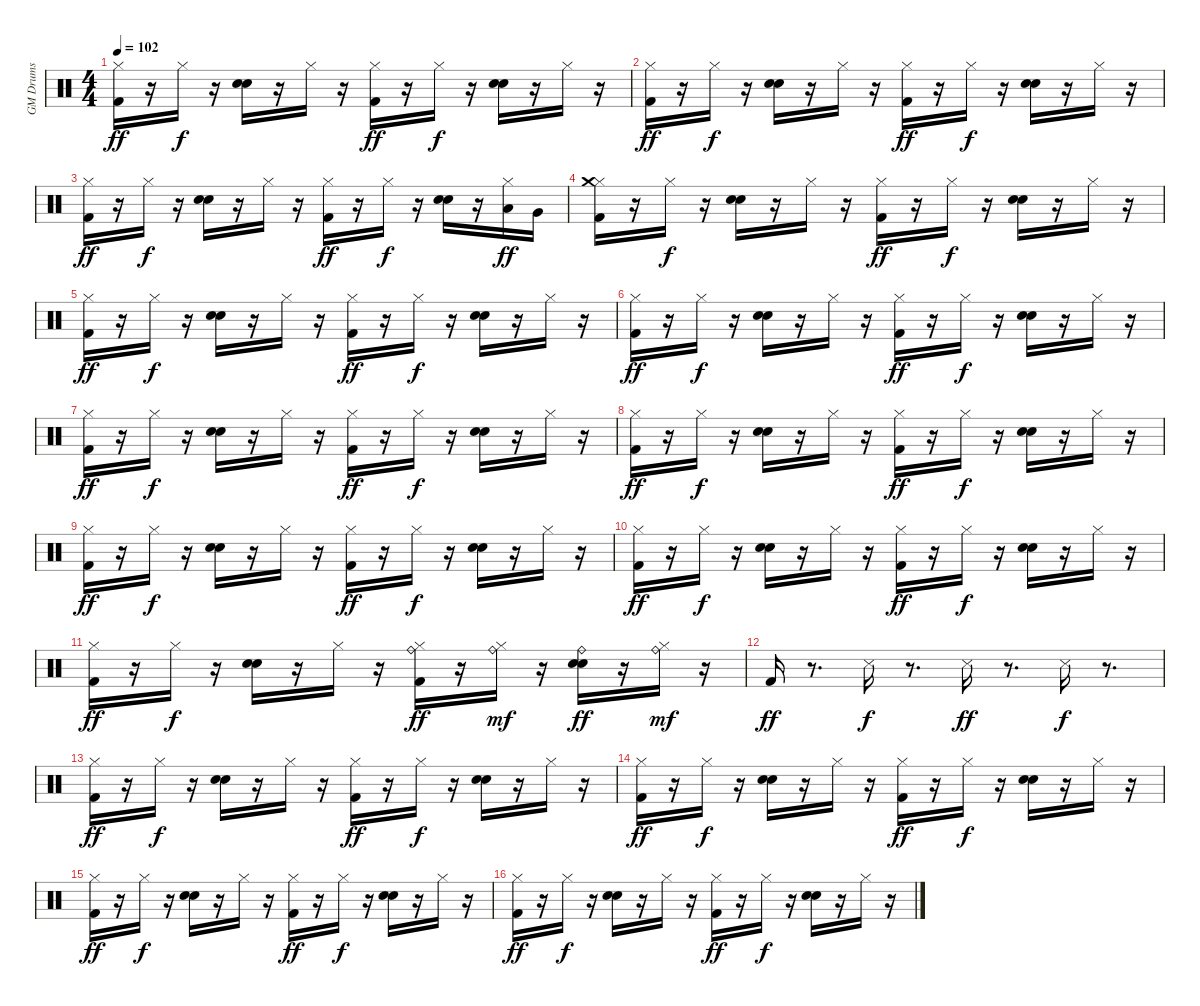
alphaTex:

\track ("GM Drums" "GM Drums") {instrument percussion}
\staff {score}
\articulation defaults
\ts (4 4)
\tempo 102
\clef neutral
\ks c
("Kick (hit) 2" "Hi-Hat (closed)").16{dy ff} r.16 "Hi-Hat (closed)".16{dy f} r.16 ("Metronome (bell)" "Hand Clap (hit)").16 r.16 "Hi-Hat (closed)".16 r.16 ("Kick (hit) 2" "Hi-Hat (closed)").16{dy ff} r.16 "Hi-Hat (closed)".16{dy f} r.16 ("Metronome (bell)" "Hand Clap (hit)").16 r.16 "Hi-Hat (closed)".16 r.16 |
("Kick (hit) 2" "Hi-Hat (closed)").16{dy ff} r.16 "Hi-Hat (closed)".16{dy f} r.16 ("Metronome (bell)" "Hand Clap (hit)").16 r.16 "Hi-Hat (closed)".16 r.16 ("Kick (hit) 2" "Hi-Hat (closed)").16{dy ff} r.16 "Hi-Hat (closed)".16{dy f} r.16 ("Metronome (bell)" "Hand Clap (hit)").16 r.16 "Hi-Hat (closed)".16 r.16 |
("Kick (hit) 2" "Hi-Hat (closed)").16{dy ff} r.16 "Hi-Hat (closed)".16{dy f} r.16 ("Metronome (bell)" "Hand Clap (hit)").16 r.16 "Hi-Hat (closed)".16 r.16 ("Kick (hit) 2" "Hi-Hat (closed)").16{dy ff} r.16 "Hi-Hat (closed)".16{dy f} r.16 ("Metronome (bell)" "Hand Clap (hit)").16 r.16 ("Hi-Hat (closed)" "Low Tom (hit)").16{dy ff} "Very Low Tom (hit)".16 |
("Kick (hit) 2" "Hi-Hat (closed)" "Crash medium (hit)").16 r.16 "Hi-Hat (closed)".16{dy f} r.16 ("Metronome (bell)" "Hand Clap (hit)").16 r.16 "Hi-Hat (closed)".16 r.16 ("Kick (hit) 2" "Hi-Hat (closed)").16{dy ff} r.16 "Hi-Hat (closed)".16{dy f} r.16 ("Metronome (bell)" "Hand Clap (hit)").16 r.16 "Hi-Hat (closed)".16 r.16 |
("Kick (hit) 2" "Hi-Hat (closed)").16{dy ff} r.16 "Hi-Hat (closed)".16{dy f} r.16 ("Metronome (bell)" "Hand Clap (hit)").16 r.16 "Hi-Hat (closed)".16 r.16 ("Kick (hit) 2" "Hi-Hat (closed)").16{dy ff} r.16 "Hi-Hat (closed)".16{dy f} r.16 ("Metronome (bell)" "Hand Clap (hit)").16 r.16 "Hi-Hat (closed)".16 r.16 |
("Kick (hit) 2" "Hi-Hat (closed)").16{dy ff} r.16 "Hi-Hat (closed)".16{dy f} r.16 ("Metronome (bell)" "Hand Clap (hit)").16 r.16 "Hi-Hat (closed)".16 r.16 ("Kick (hit) 2" "Hi-Hat (closed)").16{dy ff} r.16 "Hi-Hat (closed)".16{dy f} r.16 ("Metronome (bell)" "Hand Clap (hit)").16 r.16 "Hi-Hat (closed)".16 r.16 |
("Kick (hit) 2" "Hi-Hat (closed)").16{dy ff} r.16 "Hi-Hat (closed)".16{dy f} r.16 ("Metronome (bell)" "Hand Clap (hit)").16 r.16 "Hi-Hat (closed)".16 r.16 ("Kick (hit) 2" "Hi-Hat (closed)").16{dy ff} r.16 "Hi-Hat (closed)".16{dy f} r.16 ("Metronome (bell)" "Hand Clap (hit)").16 r.16 "Hi-Hat (closed)".16 r.16 |
("Kick (hit) 2" "Hi-Hat (closed)").16{dy ff} r.16 "Hi-Hat (closed)".16{dy f} r.16 ("Metronome (bell)" "Hand Clap (hit)").16 r.16 "Hi-Hat (closed)".16 r.16 ("Kick (hit) 2" "Hi-Hat (closed)").16{dy ff} r.16 "Hi-Hat (closed)".16{dy f} r.16 ("Metronome (bell)" "Hand Clap (hit)").16 r.16 "Hi-Hat (closed)".16 r.16 |
("Kick (hit) 2" "Hi-Hat (closed)").16{dy ff} r.16 "Hi-Hat (closed)".16{dy f} r.16 ("Metronome (bell)" "Hand Clap (hit)").16 r.16 "Hi-Hat (closed)".16 r.16 ("Kick (hit) 2" "Hi-Hat (closed)").16{dy ff} r.16 "Hi-Hat (closed)".16{dy f} r.16 ("Metronome (bell)" "Hand Clap (hit)").16 r.16 "Hi-Hat (closed)".16 r.16 |
("Kick (hit) 2" "Hi-Hat (closed)").16{dy ff} r.16 "Hi-Hat (closed)".16{dy f} r.16 ("Metronome (bell)" "Hand Clap (hit)").16 r.16 "Hi-Hat (closed)".16 r.16 ("Kick (hit) 2" "Hi-Hat (closed)").16{dy ff} r.16 "Hi-Hat (closed)".16{dy f} r.16 ("Metronome (bell)" "Hand Clap (hit)").16 r.16 "Hi-Hat (closed)".16 r.16 |
("Kick (hit) 2" "Hi-Hat (closed)").16{dy ff} r.16 "Hi-Hat (closed)".16{dy f} r.16 ("Metronome (bell)" "Hand Clap (hit)").16 r.16 "Hi-Hat (closed)".16 r.16 ("Kick (hit) 2" "Hi-Hat (closed)" "Ride (bell)").16{dy ff} r.16 ("Hi-Hat (closed)" "Ride (bell)").16{dy mf} r.16 ("Metronome (bell)" "Hand Clap (hit)" "Ride (bell)").16{dy ff} r.16 ("Hi-Hat (closed)" "Ride (bell)").16{dy mf} r.16 |
"Kick (hit) 2".16{dy ff} r.8{d} "Snare (side stick) 3".16{dy f} r.8{d} "Metronome (hit)".16{dy ff} r.8{d} "Snare (side stick) 3".16{dy f} r.8{d} |
("Kick (hit) 2" "Hi-Hat (closed)").16{dy ff} r.16 "Hi-Hat (closed)".16{dy f} r.16 ("Metronome (bell)" "Hand Clap (hit)").16 r.16 "Hi-Hat (closed)".16 r.16 ("Kick (hit) 2" "Hi-Hat (closed)").16{dy ff} r.16 "Hi-Hat (closed)".16{dy f} r.16 ("Metronome (bell)" "Hand Clap (hit)").16 r.16 "Hi-Hat (closed)".16 r.16 |
("Kick (hit) 2" "Hi-Hat (closed)").16{dy ff} r.16 "Hi-Hat (closed)".16{dy f} r.16 ("Metronome (bell)" "Hand Clap (hit)").16 r.16 "Hi-Hat (closed)".16 r.16 ("Kick (hit) 2" "Hi-Hat (closed)").16{dy ff} r.16 "Hi-Hat (closed)".16{dy f} r.16 ("Metronome (bell)" "Hand Clap (hit)").16 r.16 "Hi-Hat (closed)".16 r.16 |
("Kick (hit) 2" "Hi-Hat (closed)").16{dy ff} r.16 "Hi-Hat (closed)".16{dy f} r.16 ("Metronome (bell)" "Hand Clap (hit)").16 r.16 "Hi-Hat (closed)".16 r.16 ("Kick (hit) 2" "Hi-Hat (closed)").16{dy ff} r.16 "Hi-Hat (closed)".16{dy f} r.16 ("Metronome (bell)" "Hand Clap (hit)").16 r.16 "Hi-Hat (closed)".16 r.16 |
("Kick (hit) 2" "Hi-Hat (closed)").16{dy ff} r.16 "Hi-Hat (closed)".16{dy f} r.16 ("Metronome (bell)" "Hand Clap (hit)").16 r.16 "Hi-Hat (closed)".16 r.16 ("Kick (hit) 2" "Hi-Hat (closed)").16{dy ff} r.16 "Hi-Hat (closed)".16{dy f} r.16 ("Metronome (bell)" "Hand Clap (hit)").16 r.16 "Hi-Hat (closed)".16 r.16
